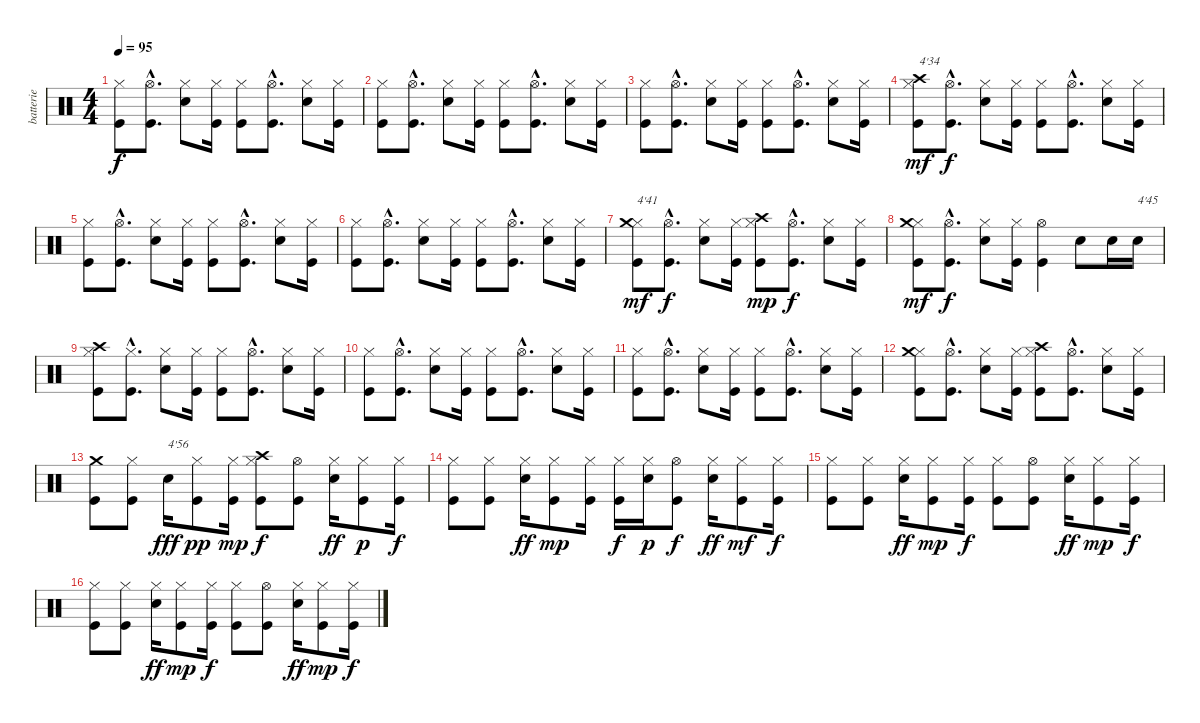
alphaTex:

\track ("batterie" "batterie") {instrument percussion}
\staff {score}
\articulation defaults
\ts (4 4)
\tempo 95
\clef neutral
\ks c
("Hi-Hat (closed)" "Kick (hit)").8{dy f} ("Hi-Hat (open)"{hac} "Kick (hit)"{hac}).8{d} ("Hi-Hat (closed)" "Electric Snare (hit)").8 ("Hi-Hat (closed)" "Kick (hit)").16 ("Hi-Hat (closed)" "Kick (hit)").8 ("Hi-Hat (open)"{hac} "Kick (hit)"{hac}).8{d} ("Hi-Hat (closed)" "Electric Snare (hit)").8 ("Hi-Hat (closed)" "Kick (hit)").16 |
("Hi-Hat (closed)" "Kick (hit)").8 ("Hi-Hat (open)"{hac} "Kick (hit)"{hac}).8{d} ("Hi-Hat (closed)" "Electric Snare (hit)").8 ("Hi-Hat (closed)" "Kick (hit)").16 ("Hi-Hat (closed)" "Kick (hit)").8 ("Hi-Hat (open)"{hac} "Kick (hit)"{hac}).8{d} ("Hi-Hat (closed)" "Electric Snare (hit)").8 ("Hi-Hat (closed)" "Kick (hit)").16 |
("Hi-Hat (closed)" "Kick (hit)").8 ("Hi-Hat (open)"{hac} "Kick (hit)"{hac}).8{d} ("Hi-Hat (closed)" "Electric Snare (hit)").8 ("Hi-Hat (closed)" "Kick (hit)").16 ("Hi-Hat (closed)" "Kick (hit)").8 ("Hi-Hat (open)"{hac} "Kick (hit)"{hac}).8{d} ("Hi-Hat (closed)" "Electric Snare (hit)").8 ("Hi-Hat (closed)" "Kick (hit)").16 |
("Hi-Hat (closed)" "Kick (hit)" "Crash high (hit)").8{txt "4'34" dy mf} ("Hi-Hat (open)"{hac} "Kick (hit)"{hac}).8{d dy f} ("Hi-Hat (closed)" "Electric Snare (hit)").8 ("Hi-Hat (closed)" "Kick (hit)").16 ("Hi-Hat (closed)" "Kick (hit)").8 ("Hi-Hat (open)"{hac} "Kick (hit)"{hac}).8{d} ("Hi-Hat (closed)" "Electric Snare (hit)").8 ("Hi-Hat (closed)" "Kick (hit)").16 |
("Hi-Hat (closed)" "Kick (hit)").8 ("Hi-Hat (open)"{hac} "Kick (hit)"{hac}).8{d} ("Hi-Hat (closed)" "Electric Snare (hit)").8 ("Hi-Hat (closed)" "Kick (hit)").16 ("Hi-Hat (closed)" "Kick (hit)").8 ("Hi-Hat (open)"{hac} "Kick (hit)"{hac}).8{d} ("Hi-Hat (closed)" "Electric Snare (hit)").8 ("Hi-Hat (closed)" "Kick (hit)").16 |
("Hi-Hat (closed)" "Kick (hit)").8 ("Hi-Hat (open)"{hac} "Kick (hit)"{hac}).8{d} ("Hi-Hat (closed)" "Electric Snare (hit)").8 ("Hi-Hat (closed)" "Kick (hit)").16 ("Hi-Hat (closed)" "Kick (hit)").8 ("Hi-Hat (open)"{hac} "Kick (hit)"{hac}).8{d} ("Hi-Hat (closed)" "Electric Snare (hit)").8 ("Hi-Hat (closed)" "Kick (hit)").16 |
("Hi-Hat (closed)" "Kick (hit)" "Crash medium (hit)").8{txt "4'41" dy mf} ("Hi-Hat (open)"{hac} "Kick (hit)"{hac}).8{d dy f} ("Hi-Hat (closed)" "Electric Snare (hit)").8 ("Hi-Hat (closed)" "Kick (hit)").16 ("Hi-Hat (closed)" "Kick (hit)" "Crash high (hit)").8{dy mp} ("Hi-Hat (open)"{hac} "Kick (hit)"{hac}).8{d dy f} ("Hi-Hat (closed)" "Electric Snare (hit)").8 ("Hi-Hat (closed)" "Kick (hit)").16 |
("Hi-Hat (closed)" "Kick (hit)" "Crash medium (hit)").8{dy mf} ("Hi-Hat (open)"{hac} "Kick (hit)"{hac}).8{d dy f} ("Hi-Hat (closed)" "Electric Snare (hit)").8 ("Hi-Hat (closed)" "Kick (hit)").16 ("Hi-Hat (open)" "Kick (hit)").4 "Electric Snare (hit)".8 "Electric Snare (hit)".16 "Electric Snare (hit)".16{txt "4'45"} |
("Hi-Hat (closed)" "Kick (hit)" "Crash high (hit)").8 ("Hi-Hat (closed)"{hac} "Kick (hit)"{hac}).8{d} ("Hi-Hat (closed)" "Electric Snare (hit)").8 ("Hi-Hat (closed)" "Kick (hit)").16 ("Hi-Hat (closed)" "Kick (hit)").8 ("Hi-Hat (open)"{hac} "Kick (hit)"{hac}).8{d} ("Hi-Hat (closed)" "Electric Snare (hit)").8 ("Hi-Hat (closed)" "Kick (hit)").16 |
("Hi-Hat (closed)" "Kick (hit)").8 ("Hi-Hat (open)"{hac} "Kick (hit)"{hac}).8{d} ("Hi-Hat (closed)" "Electric Snare (hit)").8 ("Hi-Hat (closed)" "Kick (hit)").16 ("Hi-Hat (closed)" "Kick (hit)").8 ("Hi-Hat (open)"{hac} "Kick (hit)"{hac}).8{d} ("Hi-Hat (closed)" "Electric Snare (hit)").8 ("Hi-Hat (closed)" "Kick (hit)").16 |
("Hi-Hat (closed)" "Kick (hit)").8 ("Hi-Hat (open)"{hac} "Kick (hit)"{hac}).8{d} ("Hi-Hat (closed)" "Electric Snare (hit)").8 ("Hi-Hat (closed)" "Kick (hit)").16 ("Hi-Hat (closed)" "Kick (hit)").8 ("Hi-Hat (open)"{hac} "Kick (hit)"{hac}).8{d} ("Hi-Hat (closed)" "Electric Snare (hit)").8 ("Hi-Hat (closed)" "Kick (hit)").16 |
("Hi-Hat (closed)" "Kick (hit)" "Crash medium (hit)").8 ("Hi-Hat (open)"{hac} "Kick (hit)"{hac}).8{d} ("Hi-Hat (closed)" "Electric Snare (hit)").8 ("Hi-Hat (closed)" "Kick (hit)").16 ("Hi-Hat (closed)" "Kick (hit)" "Crash high (hit)").8 ("Hi-Hat (open)"{hac} "Kick (hit)"{hac}).8{d} ("Hi-Hat (closed)" "Electric Snare (hit)").8 ("Hi-Hat (closed)" "Kick (hit)").16 |
("Kick (hit)" "Crash medium (hit)").8 ("Hi-Hat (closed)" "Kick (hit)").8 "Electric Snare (hit)".16{txt "4'56" dy fff} ("Hi-Hat (closed)" "Kick (hit)").8{dy pp} ("Hi-Hat (closed)" "Kick (hit)").16{dy mp} ("Hi-Hat (closed)" "Kick (hit)" "Crash high (hit)").8{dy f} ("Hi-Hat (open)" "Kick (hit)").8 ("Hi-Hat (closed)" "Electric Snare (hit)").16{dy ff} ("Hi-Hat (closed)" "Kick (hit)").8{dy p} ("Hi-Hat (closed)" "Kick (hit)").16{dy f} |
("Hi-Hat (closed)" "Kick (hit)").8 ("Hi-Hat (closed)" "Kick (hit)").8 ("Hi-Hat (closed)" "Electric Snare (hit)").16{dy ff} ("Hi-Hat (closed)" "Kick (hit)").8{dy mp} ("Hi-Hat (closed)" "Kick (hit)").16 ("Hi-Hat (closed)" "Kick (hit)").16{dy f} ("Hi-Hat (closed)" "Electric Snare (hit)").16{dy p} ("Hi-Hat (open)" "Kick (hit)").8{dy f} ("Hi-Hat (closed)" "Electric Snare (hit)").16{dy ff} ("Hi-Hat (closed)" "Kick (hit)").8{dy mf} ("Hi-Hat (closed)" "Kick (hit)").16{dy f} |
("Hi-Hat (closed)" "Kick (hit)").8 ("Hi-Hat (closed)" "Kick (hit)").8 ("Hi-Hat (closed)" "Electric Snare (hit)").16{dy ff} ("Hi-Hat (closed)" "Kick (hit)").8{dy mp} ("Hi-Hat (closed)" "Kick (hit)").16{dy f} ("Hi-Hat (closed)" "Kick (hit)").8 ("Hi-Hat (open)" "Kick (hit)").8 ("Hi-Hat (closed)" "Electric Snare (hit)").16{dy ff} ("Hi-Hat (closed)" "Kick (hit)").8{dy mp} ("Hi-Hat (closed)" "Kick (hit)").16{dy f} |
("Hi-Hat (closed)" "Kick (hit)").8 ("Hi-Hat (closed)" "Kick (hit)").8 ("Hi-Hat (closed)" "Electric Snare (hit)").16{dy ff} ("Hi-Hat (closed)" "Kick (hit)").8{dy mp} ("Hi-Hat (closed)" "Kick (hit)").16{dy f} ("Hi-Hat (closed)" "Kick (hit)").8 ("Hi-Hat (open)" "Kick (hit)").8 ("Hi-Hat (closed)" "Electric Snare (hit)").16{dy ff} ("Hi-Hat (closed)" "Kick (hit)").8{dy mp} ("Hi-Hat (closed)" "Kick (hit)").16{dy f}
